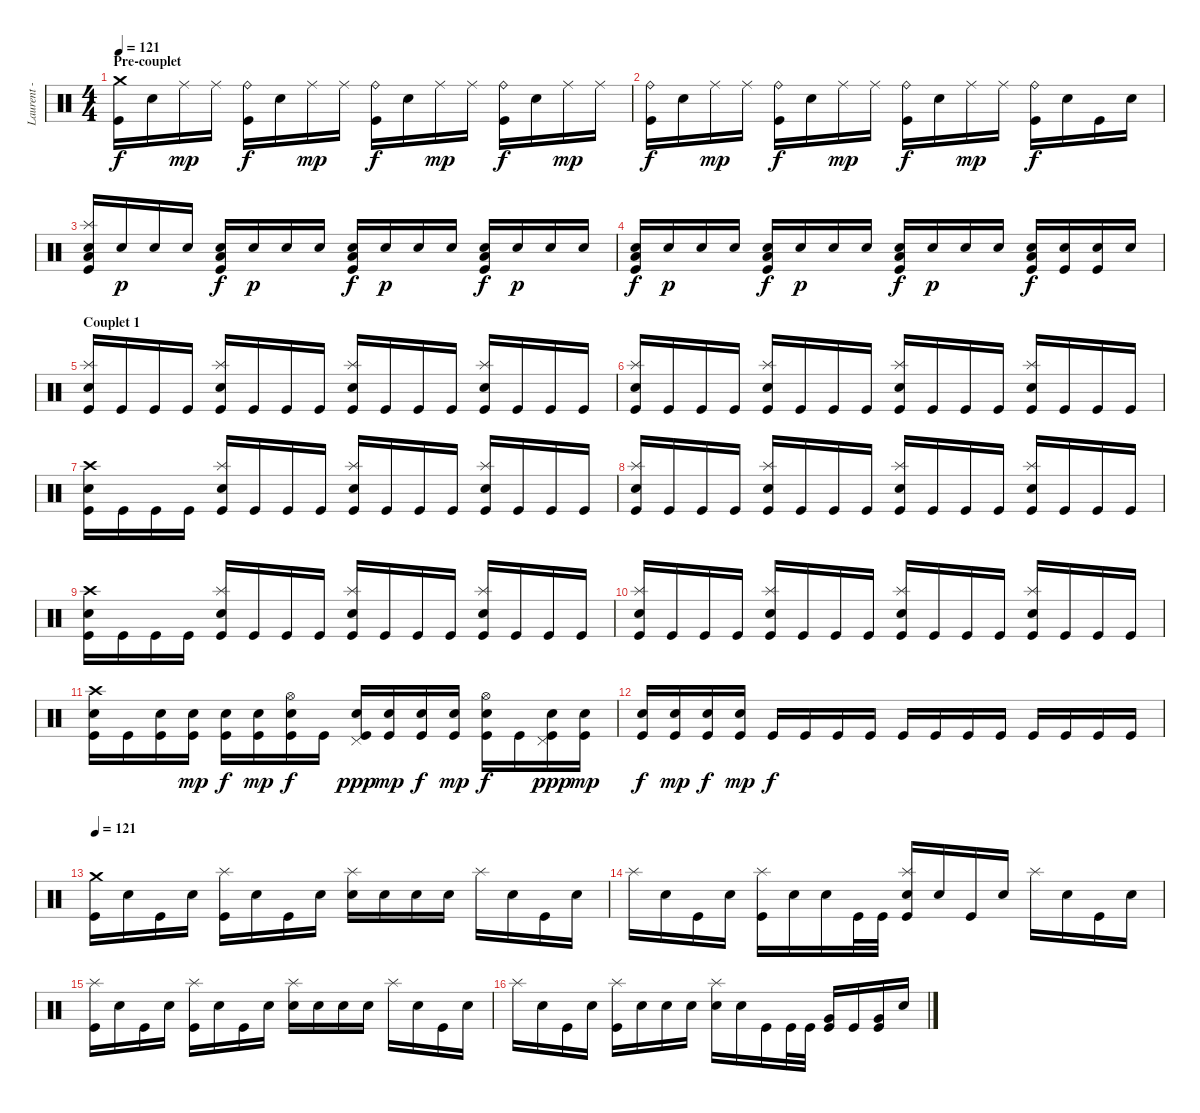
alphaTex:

\track ("Laurent - Batterie" "Laurent - ") {instrument percussion}
\staff {score}
\articulation defaults
\ts (4 4)
\section ("" "Pre-couplet")
\tempo 121
\clef neutral
\ks c
("Crash medium (hit)" "Kick (hit)").16{dy f volume 16 balance 8} "Snare (hit)".16 "Ride (middle)".16{dy mp} "Ride (middle)".16 ("Ride (bell)" "Kick (hit)").16{dy f} "Snare (hit)".16 "Ride (middle)".16{dy mp} "Ride (middle)".16 ("Ride (bell)" "Kick (hit)").16{dy f} "Snare (hit)".16 "Ride (middle)".16{dy mp} "Ride (middle)".16 ("Ride (bell)" "Kick (hit)").16{dy f} "Snare (hit)".16 "Ride (middle)".16{dy mp} "Ride (middle)".16 |
("Ride (bell)" "Kick (hit)").16{dy f} "Snare (hit)".16 "Ride (middle)".16{dy mp} "Ride (middle)".16 ("Ride (bell)" "Kick (hit)").16{dy f} "Snare (hit)".16 "Ride (middle)".16{dy mp} "Ride (middle)".16 ("Ride (bell)" "Kick (hit)").16{dy f} "Snare (hit)".16 "Ride (middle)".16{dy mp} "Ride (middle)".16 ("Ride (bell)" "Kick (hit)").16{dy f} "Snare (hit)".16 "Kick (hit)".16 "Snare (hit)".16 |
("Splash (hit)" "Electric Snare (hit)" "Low Floor Tom (hit)" "Kick (hit)").16 "Electric Snare (hit)".16{dy p} "Electric Snare (hit)".16 "Electric Snare (hit)".16 ("Electric Snare (hit)" "Low Floor Tom (hit)" "Kick (hit)").16{dy f} "Electric Snare (hit)".16{dy p} "Electric Snare (hit)".16 "Electric Snare (hit)".16 ("Electric Snare (hit)" "Low Floor Tom (hit)" "Kick (hit)").16{dy f} "Electric Snare (hit)".16{dy p} "Electric Snare (hit)".16 "Electric Snare (hit)".16 ("Electric Snare (hit)" "Low Floor Tom (hit)" "Kick (hit)").16{dy f} "Electric Snare (hit)".16{dy p} "Electric Snare (hit)".16 "Electric Snare (hit)".16 |
("Electric Snare (hit)" "Low Floor Tom (hit)" "Kick (hit)").16{dy f} "Electric Snare (hit)".16{dy p} "Electric Snare (hit)".16 "Electric Snare (hit)".16 ("Electric Snare (hit)" "Low Floor Tom (hit)" "Kick (hit)").16{dy f} "Electric Snare (hit)".16{dy p} "Electric Snare (hit)".16 "Electric Snare (hit)".16 ("Electric Snare (hit)" "Low Floor Tom (hit)" "Kick (hit)").16{dy f} "Electric Snare (hit)".16{dy p} "Electric Snare (hit)".16 "Electric Snare (hit)".16 ("Electric Snare (hit)" "Low Floor Tom (hit)" "Kick (hit)").16{dy f} ("Electric Snare (hit)" "Kick (hit)").16 ("Electric Snare (hit)" "Kick (hit)").16 "Snare (hit)".16 |
\section ("" "Couplet 1")
("Splash (hit)" "Electric Snare (hit)" "Kick (hit)").16{volume 16 balance 8} "Kick (hit)".16 "Kick (hit)".16 "Kick (hit)".16 ("Splash (hit)" "Electric Snare (hit)" "Kick (hit)").16 "Kick (hit)".16 "Kick (hit)".16 "Kick (hit)".16 ("Splash (hit)" "Electric Snare (hit)" "Kick (hit)").16 "Kick (hit)".16 "Kick (hit)".16 "Kick (hit)".16 ("Splash (hit)" "Electric Snare (hit)" "Kick (hit)").16 "Kick (hit)".16 "Kick (hit)".16 "Kick (hit)".16 |
("Splash (hit)" "Electric Snare (hit)" "Kick (hit)").16 "Kick (hit)".16 "Kick (hit)".16 "Kick (hit)".16 ("Splash (hit)" "Electric Snare (hit)" "Kick (hit)").16 "Kick (hit)".16 "Kick (hit)".16 "Kick (hit)".16 ("Splash (hit)" "Electric Snare (hit)" "Kick (hit)").16 "Kick (hit)".16 "Kick (hit)".16 "Kick (hit)".16 ("Splash (hit)" "Electric Snare (hit)" "Kick (hit)").16 "Kick (hit)".16 "Kick (hit)".16 "Kick (hit)".16 |
("Crash high (hit)" "Electric Snare (hit)" "Kick (hit)").16 "Kick (hit)".16 "Kick (hit)".16 "Kick (hit)".16 ("Splash (hit)" "Electric Snare (hit)" "Kick (hit)").16 "Kick (hit)".16 "Kick (hit)".16 "Kick (hit)".16 ("Splash (hit)" "Electric Snare (hit)" "Kick (hit)").16 "Kick (hit)".16 "Kick (hit)".16 "Kick (hit)".16 ("Splash (hit)" "Electric Snare (hit)" "Kick (hit)").16 "Kick (hit)".16 "Kick (hit)".16 "Kick (hit)".16 |
("Splash (hit)" "Electric Snare (hit)" "Kick (hit)").16 "Kick (hit)".16 "Kick (hit)".16 "Kick (hit)".16 ("Splash (hit)" "Electric Snare (hit)" "Kick (hit)").16 "Kick (hit)".16 "Kick (hit)".16 "Kick (hit)".16 ("Splash (hit)" "Electric Snare (hit)" "Kick (hit)").16 "Kick (hit)".16 "Kick (hit)".16 "Kick (hit)".16 ("Splash (hit)" "Electric Snare (hit)" "Kick (hit)").16 "Kick (hit)".16 "Kick (hit)".16 "Kick (hit)".16 |
("Crash high (hit)" "Electric Snare (hit)" "Kick (hit)").16 "Kick (hit)".16 "Kick (hit)".16 "Kick (hit)".16 ("Splash (hit)" "Electric Snare (hit)" "Kick (hit)").16 "Kick (hit)".16 "Kick (hit)".16 "Kick (hit)".16 ("Splash (hit)" "Electric Snare (hit)" "Kick (hit)").16 "Kick (hit)".16 "Kick (hit)".16 "Kick (hit)".16 ("Splash (hit)" "Electric Snare (hit)" "Kick (hit)").16 "Kick (hit)".16 "Kick (hit)".16 "Kick (hit)".16 |
("Splash (hit)" "Electric Snare (hit)" "Kick (hit)").16 "Kick (hit)".16 "Kick (hit)".16 "Kick (hit)".16 ("Splash (hit)" "Electric Snare (hit)" "Kick (hit)").16 "Kick (hit)".16 "Kick (hit)".16 "Kick (hit)".16 ("Splash (hit)" "Electric Snare (hit)" "Kick (hit)").16 "Kick (hit)".16 "Kick (hit)".16 "Kick (hit)".16 ("Splash (hit)" "Electric Snare (hit)" "Kick (hit)").16 "Kick (hit)".16 "Kick (hit)".16 "Kick (hit)".16 |
("Crash high (hit)" "Electric Snare (hit)" "Kick (hit)").16 "Kick (hit)".16 ("Electric Snare (hit)" "Kick (hit)").16 ("Electric Snare (hit)" "Kick (hit)").16{dy mp} ("Electric Snare (hit)" "Kick (hit)").16{dy f} ("Electric Snare (hit)" "Kick (hit)").16{dy mp} ("Hi-Hat (open)" "Electric Snare (hit)" "Kick (hit)").16{dy f} "Kick (hit)".16 ("Pedal Hi-Hat (hit)" "Electric Snare (hit)" "Kick (hit)").16{dy ppp} ("Electric Snare (hit)" "Kick (hit)").16{dy mp} ("Electric Snare (hit)" "Kick (hit)").16{dy f} ("Electric Snare (hit)" "Kick (hit)").16{dy mp} ("Hi-Hat (open)" "Electric Snare (hit)" "Kick (hit)").16{dy f} "Kick (hit)".16 ("Pedal Hi-Hat (hit)" "Electric Snare (hit)" "Kick (hit)").16{dy ppp} ("Electric Snare (hit)" "Kick (hit)").16{dy mp} |
("Electric Snare (hit)" "Kick (hit)").16{dy f} ("Electric Snare (hit)" "Kick (hit)").16{dy mp} ("Electric Snare (hit)" "Kick (hit)").16{dy f} ("Electric Snare (hit)" "Kick (hit)").16{dy mp} "Kick (hit)".16{dy f} "Kick (hit)".16 "Kick (hit)".16 "Kick (hit)".16 "Kick (hit)".16 "Kick (hit)".16 "Kick (hit)".16 "Kick (hit)".16 "Kick (hit)".16 "Kick (hit)".16 "Kick (hit)".16 "Kick (hit)".16 |
\section ("" "")
\tempo 121
("Crash medium (hit)" "Kick (hit)").16{volume 16 balance 8} "Snare (hit)".16 "Kick (hit)".16 "Snare (hit)".16 ("Splash (hit)" "Kick (hit)").16 "Snare (hit)".16 "Kick (hit)".16 "Snare (hit)".16 ("Splash (hit)" "Electric Snare (hit)").16 "Snare (hit)".16 "Snare (hit)".16 "Snare (hit)".16 "Splash (hit)".16 "Snare (hit)".16 "Kick (hit)".16 "Snare (hit)".16 |
"Splash (hit)".16 "Snare (hit)".16 "Kick (hit)".16 "Snare (hit)".16 ("Splash (hit)" "Kick (hit)").16 "Snare (hit)".16 "Snare (hit)".16 "Kick (hit)".32 "Kick (hit)".32 ("Splash (hit)" "Electric Snare (hit)" "Kick (hit)").16 "Snare (hit)".16 "Kick (hit)".16 "Snare (hit)".16 "Splash (hit)".16 "Snare (hit)".16 "Kick (hit)".16 "Snare (hit)".16 |
("Splash (hit)" "Kick (hit)").16 "Snare (hit)".16 "Kick (hit)".16 "Snare (hit)".16 ("Splash (hit)" "Kick (hit)").16 "Snare (hit)".16 "Kick (hit)".16 "Snare (hit)".16 ("Splash (hit)" "Electric Snare (hit)").16 "Snare (hit)".16 "Snare (hit)".16 "Snare (hit)".16 "Splash (hit)".16 "Snare (hit)".16 "Kick (hit)".16 "Snare (hit)".16 |
"Splash (hit)".16 "Snare (hit)".16 "Kick (hit)".16 "Snare (hit)".16 ("Splash (hit)" "Kick (hit)").16 "Snare (hit)".16 "Snare (hit)".16 "Snare (hit)".16 ("Splash (hit)" "Electric Snare (hit)").16 "Snare (hit)".16 "Kick (hit)".16 "Kick (hit)".32 "Kick (hit)".32 ("Very Low Tom (hit)" "Kick (hit)").16 "Kick (hit)".16 ("Very Low Tom (hit)" "Kick (hit)").16 "Snare (hit)".16
